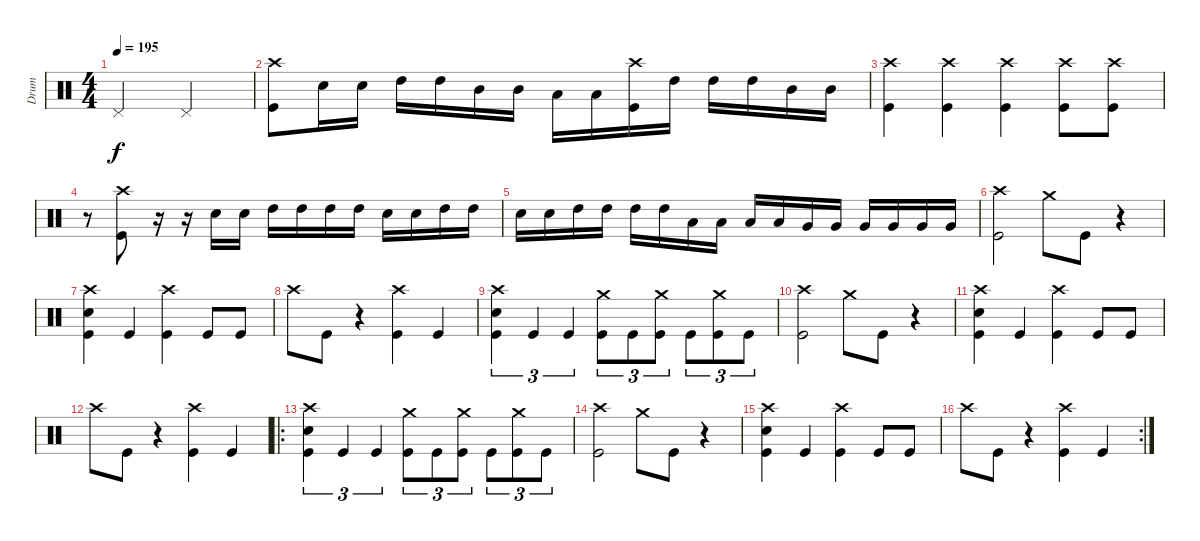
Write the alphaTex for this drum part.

\track ("Drum" "Drum") {instrument percussion}
\staff {score}
\articulation defaults
\ts (4 4)
\tempo 195
\clef neutral
\ks c "Pedal Hi-Hat (hit)".2{dy f} "Pedal Hi-Hat (hit)".2
|
("Crash high (hit)" "Kick (hit)").8 "Snare (hit) 2".16 "Snare (hit) 2".16 "High Tom (hit)".16 "High Tom (hit)".16 "Mid Tom (hit)".16 "Mid Tom (hit)".16 "Low Tom (hit)".16 "Low Tom (hit)".16 ("Crash high (hit)" "Kick (hit)").16 "High Tom (hit)".16 "High Tom (hit)".16 "High Tom (hit)".16 "Mid Tom (hit)".16 "Mid Tom (hit)".16 |
("Crash high (hit)" "Kick (hit)").4 ("Crash high (hit)" "Kick (hit)").4 ("Crash high (hit)" "Kick (hit)").4 ("Crash high (hit)" "Kick (hit)").8 ("Crash high (hit)" "Kick (hit)").8 |
r.8 ("Crash high (hit)" "Kick (hit)").8 r.16 r.16 "Snare (hit) 2".16 "Snare (hit) 2".16 "High Tom (hit)".16 "High Tom (hit)".16 "High Tom (hit)".16 "High Tom (hit)".16 "Snare (hit) 2".16 "Snare (hit) 2".16 "High Tom (hit)".16 "High Tom (hit)".16 |
"Snare (hit) 2".16 "Snare (hit) 2".16 "High Tom (hit)".16 "High Tom (hit)".16 "High Tom (hit)".16 "High Tom (hit)".16 "Low Tom (hit)".16 "Low Tom (hit)".16 "Low Tom (hit)".16 "Low Tom (hit)".16 "Very Low Tom (hit)".16 "Very Low Tom (hit)".16 "Very Low Tom (hit)".16 "Very Low Tom (hit)".16 "Very Low Tom (hit)".16 "Very Low Tom (hit)".16 |
("Crash high (hit)" "Kick (hit)").2 "Crash medium (hit)".8 "Kick (hit)".8 r.4 |
("Crash high (hit)" "Snare (hit) 2" "Kick (hit)").4 "Kick (hit)".4 ("Crash high (hit)" "Kick (hit)").4 "Kick (hit)".8 "Kick (hit)".8 |
"Crash high (hit)".8 "Kick (hit)".8 r.4 ("Crash high (hit)" "Kick (hit)").4 "Kick (hit)".4 |
("Crash high (hit)" "Snare (hit) 2" "Kick (hit)").4{tu (3 2)} "Kick (hit)".4{tu (3 2)} "Kick (hit)".4{tu (3 2)} ("Crash medium (hit)" "Kick (hit)").8{tu (3 2)} "Kick (hit)".8{tu (3 2)} ("Crash medium (hit)" "Kick (hit)").8{tu (3 2)} "Kick (hit)".8{tu (3 2)} ("Crash medium (hit)" "Kick (hit)").8{tu (3 2)} "Kick (hit)".8{tu (3 2)} |
("Crash high (hit)" "Kick (hit)").2 "Crash medium (hit)".8 "Kick (hit)".8 r.4 |
("Crash high (hit)" "Snare (hit) 2" "Kick (hit)").4 "Kick (hit)".4 ("Crash high (hit)" "Kick (hit)").4 "Kick (hit)".8 "Kick (hit)".8 |
"Crash high (hit)".8 "Kick (hit)".8 r.4 ("Crash high (hit)" "Kick (hit)").4 "Kick (hit)".4 |
\ro
("Crash high (hit)" "Snare (hit) 2" "Kick (hit)").4{tu (3 2)} "Kick (hit)".4{tu (3 2)} "Kick (hit)".4{tu (3 2)} ("Crash medium (hit)" "Kick (hit)").8{tu (3 2)} "Kick (hit)".8{tu (3 2)} ("Crash medium (hit)" "Kick (hit)").8{tu (3 2)} "Kick (hit)".8{tu (3 2)} ("Crash medium (hit)" "Kick (hit)").8{tu (3 2)} "Kick (hit)".8{tu (3 2)} |
("Crash high (hit)" "Kick (hit)").2 "Crash medium (hit)".8 "Kick (hit)".8 r.4 |
("Crash high (hit)" "Snare (hit) 2" "Kick (hit)").4 "Kick (hit)".4 ("Crash high (hit)" "Kick (hit)").4 "Kick (hit)".8 "Kick (hit)".8 |
\rc 2 "Crash high (hit)".8 "Kick (hit)".8
r.4 ("Crash high (hit)" "Kick (hit)").4 "Kick (hit)".4
